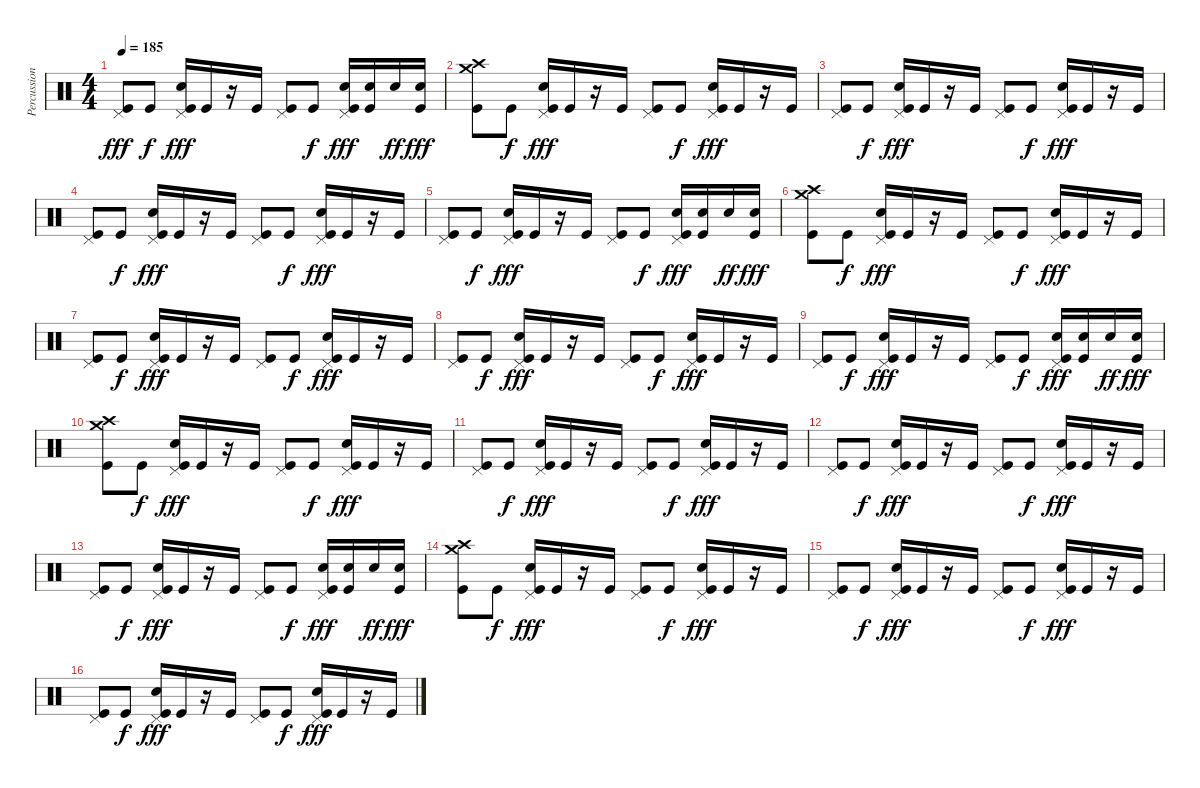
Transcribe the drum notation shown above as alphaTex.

\track ("Percussions" "Percussion") {instrument percussion}
\staff {score}
\articulation defaults
\ts (4 4)
\tempo 185
\clef neutral
\ks c
("Pedal Hi-Hat (hit)" "Kick (hit)").8{dy fff} "Kick (hit)".8{dy f} ("Pedal Hi-Hat (hit)" "Electric Snare (hit)" "Kick (hit)").16{dy fff} "Kick (hit)".16 r.16 "Kick (hit)".16 ("Pedal Hi-Hat (hit)" "Kick (hit)").8 "Kick (hit)".8{dy f} ("Pedal Hi-Hat (hit)" "Electric Snare (hit)" "Kick (hit)").16{dy fff} ("Electric Snare (hit)" "Kick (hit)").16 "Electric Snare (hit)".16{dy ff} ("Electric Snare (hit)" "Kick (hit)").16{dy fff} |
("Crash medium (hit)" "Crash high (hit)" "Kick (hit)").8 "Kick (hit)".8{dy f} ("Pedal Hi-Hat (hit)" "Electric Snare (hit)" "Kick (hit)").16{dy fff} "Kick (hit)".16 r.16 "Kick (hit)".16 ("Pedal Hi-Hat (hit)" "Kick (hit)").8 "Kick (hit)".8{dy f} ("Pedal Hi-Hat (hit)" "Electric Snare (hit)" "Kick (hit)").16{dy fff} "Kick (hit)".16 r.16 "Kick (hit)".16 |
("Pedal Hi-Hat (hit)" "Kick (hit)").8 "Kick (hit)".8{dy f} ("Pedal Hi-Hat (hit)" "Electric Snare (hit)" "Kick (hit)").16{dy fff} "Kick (hit)".16 r.16 "Kick (hit)".16 ("Pedal Hi-Hat (hit)" "Kick (hit)").8 "Kick (hit)".8{dy f} ("Pedal Hi-Hat (hit)" "Electric Snare (hit)" "Kick (hit)").16{dy fff} "Kick (hit)".16 r.16 "Kick (hit)".16 |
("Pedal Hi-Hat (hit)" "Kick (hit)").8 "Kick (hit)".8{dy f} ("Pedal Hi-Hat (hit)" "Electric Snare (hit)" "Kick (hit)").16{dy fff} "Kick (hit)".16 r.16 "Kick (hit)".16 ("Pedal Hi-Hat (hit)" "Kick (hit)").8 "Kick (hit)".8{dy f} ("Pedal Hi-Hat (hit)" "Electric Snare (hit)" "Kick (hit)").16{dy fff} "Kick (hit)".16 r.16 "Kick (hit)".16 |
("Pedal Hi-Hat (hit)" "Kick (hit)").8 "Kick (hit)".8{dy f} ("Pedal Hi-Hat (hit)" "Electric Snare (hit)" "Kick (hit)").16{dy fff} "Kick (hit)".16 r.16 "Kick (hit)".16 ("Pedal Hi-Hat (hit)" "Kick (hit)").8 "Kick (hit)".8{dy f} ("Pedal Hi-Hat (hit)" "Electric Snare (hit)" "Kick (hit)").16{dy fff} ("Electric Snare (hit)" "Kick (hit)").16 "Electric Snare (hit)".16{dy ff} ("Electric Snare (hit)" "Kick (hit)").16{dy fff} |
\section ("" "")
("Crash medium (hit)" "Crash high (hit)" "Kick (hit)").8 "Kick (hit)".8{dy f} ("Pedal Hi-Hat (hit)" "Electric Snare (hit)" "Kick (hit)").16{dy fff} "Kick (hit)".16 r.16 "Kick (hit)".16 ("Pedal Hi-Hat (hit)" "Kick (hit)").8 "Kick (hit)".8{dy f} ("Pedal Hi-Hat (hit)" "Electric Snare (hit)" "Kick (hit)").16{dy fff} "Kick (hit)".16 r.16 "Kick (hit)".16 |
("Pedal Hi-Hat (hit)" "Kick (hit)").8 "Kick (hit)".8{dy f} ("Pedal Hi-Hat (hit)" "Electric Snare (hit)" "Kick (hit)").16{dy fff} "Kick (hit)".16 r.16 "Kick (hit)".16 ("Pedal Hi-Hat (hit)" "Kick (hit)").8 "Kick (hit)".8{dy f} ("Pedal Hi-Hat (hit)" "Electric Snare (hit)" "Kick (hit)").16{dy fff} "Kick (hit)".16 r.16 "Kick (hit)".16 |
("Pedal Hi-Hat (hit)" "Kick (hit)").8 "Kick (hit)".8{dy f} ("Pedal Hi-Hat (hit)" "Electric Snare (hit)" "Kick (hit)").16{dy fff} "Kick (hit)".16 r.16 "Kick (hit)".16 ("Pedal Hi-Hat (hit)" "Kick (hit)").8 "Kick (hit)".8{dy f} ("Pedal Hi-Hat (hit)" "Electric Snare (hit)" "Kick (hit)").16{dy fff} "Kick (hit)".16 r.16 "Kick (hit)".16 |
("Pedal Hi-Hat (hit)" "Kick (hit)").8 "Kick (hit)".8{dy f} ("Pedal Hi-Hat (hit)" "Electric Snare (hit)" "Kick (hit)").16{dy fff} "Kick (hit)".16 r.16 "Kick (hit)".16 ("Pedal Hi-Hat (hit)" "Kick (hit)").8 "Kick (hit)".8{dy f} ("Pedal Hi-Hat (hit)" "Electric Snare (hit)" "Kick (hit)").16{dy fff} ("Electric Snare (hit)" "Kick (hit)").16 "Electric Snare (hit)".16{dy ff} ("Electric Snare (hit)" "Kick (hit)").16{dy fff} |
\section ("" "")
("Crash medium (hit)" "Crash high (hit)" "Kick (hit)").8 "Kick (hit)".8{dy f} ("Pedal Hi-Hat (hit)" "Electric Snare (hit)" "Kick (hit)").16{dy fff} "Kick (hit)".16 r.16 "Kick (hit)".16 ("Pedal Hi-Hat (hit)" "Kick (hit)").8 "Kick (hit)".8{dy f} ("Pedal Hi-Hat (hit)" "Electric Snare (hit)" "Kick (hit)").16{dy fff} "Kick (hit)".16 r.16 "Kick (hit)".16 |
("Pedal Hi-Hat (hit)" "Kick (hit)").8 "Kick (hit)".8{dy f} ("Pedal Hi-Hat (hit)" "Electric Snare (hit)" "Kick (hit)").16{dy fff} "Kick (hit)".16 r.16 "Kick (hit)".16 ("Pedal Hi-Hat (hit)" "Kick (hit)").8 "Kick (hit)".8{dy f} ("Pedal Hi-Hat (hit)" "Electric Snare (hit)" "Kick (hit)").16{dy fff} "Kick (hit)".16 r.16 "Kick (hit)".16 |
("Pedal Hi-Hat (hit)" "Kick (hit)").8 "Kick (hit)".8{dy f} ("Pedal Hi-Hat (hit)" "Electric Snare (hit)" "Kick (hit)").16{dy fff} "Kick (hit)".16 r.16 "Kick (hit)".16 ("Pedal Hi-Hat (hit)" "Kick (hit)").8 "Kick (hit)".8{dy f} ("Pedal Hi-Hat (hit)" "Electric Snare (hit)" "Kick (hit)").16{dy fff} "Kick (hit)".16 r.16 "Kick (hit)".16 |
("Pedal Hi-Hat (hit)" "Kick (hit)").8 "Kick (hit)".8{dy f} ("Pedal Hi-Hat (hit)" "Electric Snare (hit)" "Kick (hit)").16{dy fff} "Kick (hit)".16 r.16 "Kick (hit)".16 ("Pedal Hi-Hat (hit)" "Kick (hit)").8 "Kick (hit)".8{dy f} ("Pedal Hi-Hat (hit)" "Electric Snare (hit)" "Kick (hit)").16{dy fff} ("Electric Snare (hit)" "Kick (hit)").16 "Electric Snare (hit)".16{dy ff} ("Electric Snare (hit)" "Kick (hit)").16{dy fff} |
("Crash medium (hit)" "Crash high (hit)" "Kick (hit)").8 "Kick (hit)".8{dy f} ("Pedal Hi-Hat (hit)" "Electric Snare (hit)" "Kick (hit)").16{dy fff} "Kick (hit)".16 r.16 "Kick (hit)".16 ("Pedal Hi-Hat (hit)" "Kick (hit)").8 "Kick (hit)".8{dy f} ("Pedal Hi-Hat (hit)" "Electric Snare (hit)" "Kick (hit)").16{dy fff} "Kick (hit)".16 r.16 "Kick (hit)".16 |
("Pedal Hi-Hat (hit)" "Kick (hit)").8 "Kick (hit)".8{dy f} ("Pedal Hi-Hat (hit)" "Electric Snare (hit)" "Kick (hit)").16{dy fff} "Kick (hit)".16 r.16 "Kick (hit)".16 ("Pedal Hi-Hat (hit)" "Kick (hit)").8 "Kick (hit)".8{dy f} ("Pedal Hi-Hat (hit)" "Electric Snare (hit)" "Kick (hit)").16{dy fff} "Kick (hit)".16 r.16 "Kick (hit)".16 |
("Pedal Hi-Hat (hit)" "Kick (hit)").8 "Kick (hit)".8{dy f} ("Pedal Hi-Hat (hit)" "Electric Snare (hit)" "Kick (hit)").16{dy fff} "Kick (hit)".16 r.16 "Kick (hit)".16 ("Pedal Hi-Hat (hit)" "Kick (hit)").8 "Kick (hit)".8{dy f} ("Pedal Hi-Hat (hit)" "Electric Snare (hit)" "Kick (hit)").16{dy fff} "Kick (hit)".16 r.16 "Kick (hit)".16
